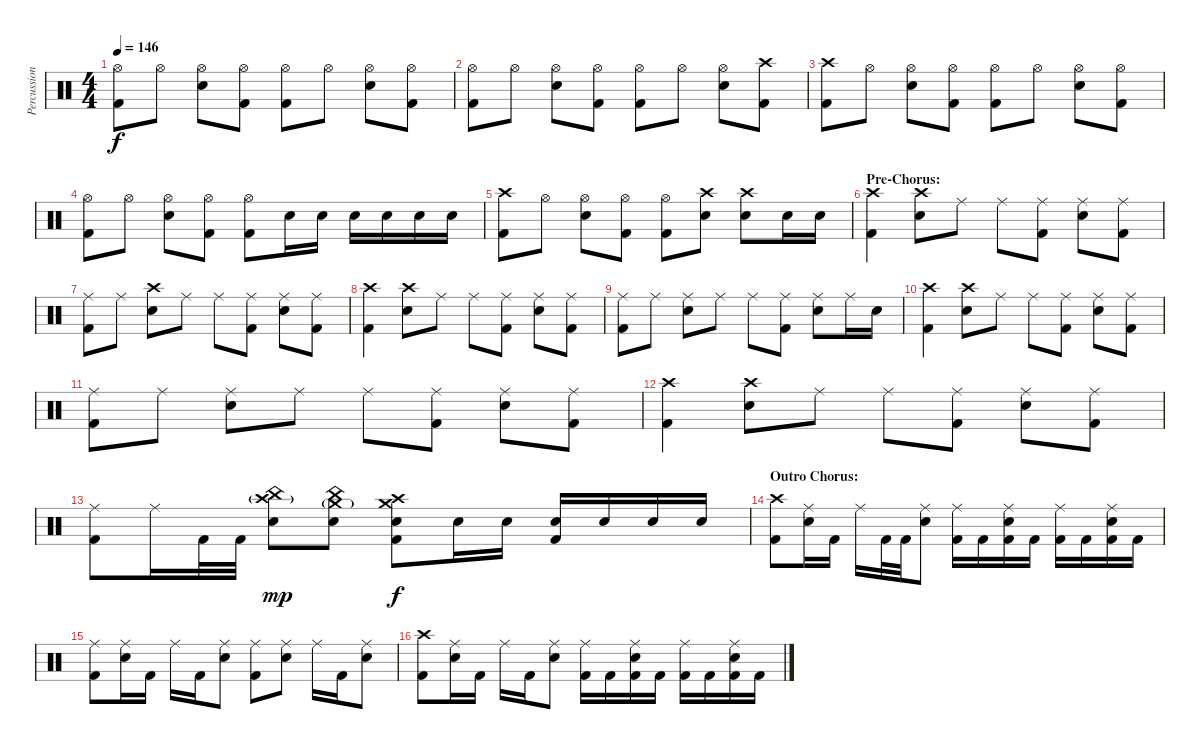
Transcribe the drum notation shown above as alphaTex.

\track ("Percussion" "Percussion") {instrument percussion}
\staff {score}
\articulation defaults
\ts (4 4)
\tempo 146
\clef neutral
\ks c
("Hi-Hat (open)" "Kick (hit) 2").8{dy f} "Hi-Hat (open)".8 ("Hi-Hat (open)" "Snare (hit) 2").8 ("Hi-Hat (open)" "Kick (hit) 2").8 ("Hi-Hat (open)" "Kick (hit) 2").8 "Hi-Hat (open)".8 ("Hi-Hat (open)" "Snare (hit) 2").8 ("Hi-Hat (open)" "Kick (hit) 2").8 |
("Hi-Hat (open)" "Kick (hit) 2").8 "Hi-Hat (open)".8 ("Hi-Hat (open)" "Snare (hit) 2").8 ("Hi-Hat (open)" "Kick (hit) 2").8 ("Hi-Hat (open)" "Kick (hit) 2").8 "Hi-Hat (open)".8 ("Hi-Hat (open)" "Snare (hit) 2").8 ("Crash high (hit)" "Kick (hit) 2").8 |
("Crash high (hit)" "Kick (hit) 2").8 "Hi-Hat (open)".8 ("Hi-Hat (open)" "Snare (hit) 2").8 ("Hi-Hat (open)" "Kick (hit) 2").8 ("Hi-Hat (open)" "Kick (hit) 2").8 "Hi-Hat (open)".8 ("Hi-Hat (open)" "Snare (hit) 2").8 ("Hi-Hat (open)" "Kick (hit) 2").8 |
("Hi-Hat (open)" "Kick (hit) 2").8 "Hi-Hat (open)".8 ("Hi-Hat (open)" "Snare (hit) 2").8 ("Hi-Hat (open)" "Kick (hit) 2").8 ("Hi-Hat (open)" "Kick (hit) 2").8 "Snare (hit) 2".16 "Snare (hit) 2".16 "Snare (hit) 2".16 "Snare (hit) 2".16 "Snare (hit) 2".16 "Snare (hit) 2".16 |
("Crash high (hit)" "Kick (hit) 2").8 "Hi-Hat (open)".8 ("Hi-Hat (open)" "Snare (hit) 2").8 ("Hi-Hat (open)" "Kick (hit) 2").8 ("Hi-Hat (open)" "Kick (hit) 2").8 ("Crash high (hit)" "Snare (hit) 2").8 ("Crash high (hit)" "Snare (hit) 2").8 "Snare (hit) 2".16 "Snare (hit) 2".16 |
\section ("" "Pre-Chorus:")
("Crash high (hit)" "Kick (hit) 2").4 ("Crash high (hit)" "Snare (hit) 2").8 "Ride (middle)".8 "Ride (middle)".8 ("Ride (middle)" "Kick (hit) 2").8 ("Ride (middle)" "Snare (hit) 2").8 ("Ride (middle)" "Kick (hit) 2").8 |
("Ride (middle)" "Kick (hit) 2").8 "Ride (middle)".8 ("Crash high (hit)" "Snare (hit) 2").8 "Ride (middle)".8 "Ride (middle)".8 ("Ride (middle)" "Kick (hit) 2").8 ("Ride (middle)" "Snare (hit) 2").8 ("Ride (middle)" "Kick (hit) 2").8 |
("Crash high (hit)" "Kick (hit) 2").4 ("Crash high (hit)" "Snare (hit) 2").8 "Ride (middle)".8 "Ride (middle)".8 ("Ride (middle)" "Kick (hit) 2").8 ("Ride (middle)" "Snare (hit) 2").8 ("Ride (middle)" "Kick (hit) 2").8 |
("Ride (middle)" "Kick (hit) 2").8 "Ride (middle)".8 ("Ride (middle)" "Snare (hit) 2").8 "Ride (middle)".8 "Ride (middle)".8 ("Ride (middle)" "Kick (hit) 2").8 ("Ride (middle)" "Snare (hit) 2").8 "Ride (middle)".16 "Snare (hit) 2".16 |
("Crash high (hit)" "Kick (hit) 2").4 ("Crash high (hit)" "Snare (hit) 2").8 "Ride (middle)".8 "Ride (middle)".8 ("Ride (middle)" "Kick (hit) 2").8 ("Ride (middle)" "Snare (hit) 2").8 ("Ride (middle)" "Kick (hit) 2").8 |
("Ride (middle)" "Kick (hit) 2").8 "Ride (middle)".8 ("Ride (middle)" "Snare (hit) 2").8 "Ride (middle)".8 "Ride (middle)".8 ("Ride (middle)" "Kick (hit) 2").8 ("Ride (middle)" "Snare (hit) 2").8 ("Ride (middle)" "Kick (hit) 2").8 |
("Crash high (hit)" "Kick (hit) 2").4 ("Crash high (hit)" "Snare (hit) 2").8 "Ride (middle)".8 "Ride (middle)".8 ("Ride (middle)" "Kick (hit) 2").8 ("Ride (middle)" "Snare (hit) 2").8 ("Ride (middle)" "Kick (hit) 2").8 |
("Ride (middle)" "Kick (hit) 2").8 "Ride (middle)".16 "Kick (hit) 2".32 "Kick (hit) 2".32 ("China (hit)" "Crash high (hit)"{g} "Snare (hit) 2").8{dy mp} ("China (hit)" "Crash medium (hit)"{g} "Snare (hit) 2").8 ("Crash high (hit)" "Crash medium (hit)" "Snare (hit) 2" "Kick (hit) 2").8{dy f} "Snare (hit) 2".16 "Snare (hit) 2".16 ("Snare (hit) 2" "Kick (hit) 2").16 "Snare (hit) 2".16 "Snare (hit) 2".16 "Snare (hit) 2".16 |
\section ("" "Outro Chorus:")
("Crash high (hit)" "Kick (hit) 2").8 ("Ride (middle)" "Snare (hit) 2").16 "Kick (hit) 2".16 "Ride (middle)".16 "Kick (hit) 2".32 "Kick (hit) 2".32 ("Ride (middle)" "Snare (hit) 2").8 ("Ride (middle)" "Kick (hit) 2").16 "Kick (hit) 2".16 ("Ride (middle)" "Snare (hit) 2" "Kick (hit) 2").16 "Kick (hit) 2".16 ("Ride (middle)" "Kick (hit) 2").16 "Kick (hit) 2".16 ("Ride (middle)" "Snare (hit) 2" "Kick (hit) 2").16 "Kick (hit) 2".16 |
("Ride (middle)" "Kick (hit) 2").8 ("Ride (middle)" "Snare (hit) 2").16 "Kick (hit) 2".16 "Ride (middle)".16 "Kick (hit) 2".16 ("Ride (middle)" "Snare (hit) 2").8 ("Ride (middle)" "Kick (hit) 2").8 ("Ride (middle)" "Snare (hit) 2").8 "Ride (middle)".16 "Kick (hit) 2".16 ("Ride (middle)" "Snare (hit) 2").8 |
("Crash high (hit)" "Kick (hit) 2").8 ("Ride (middle)" "Snare (hit) 2").16 "Kick (hit) 2".16 "Ride (middle)".16 "Kick (hit) 2".16 ("Ride (middle)" "Snare (hit) 2").8 ("Ride (middle)" "Kick (hit) 2").16 "Kick (hit) 2".16 ("Ride (middle)" "Snare (hit) 2" "Kick (hit) 2").16 "Kick (hit) 2".16 ("Ride (middle)" "Kick (hit) 2").16 "Kick (hit) 2".16 ("Ride (middle)" "Snare (hit) 2" "Kick (hit) 2").16 "Kick (hit) 2".16
